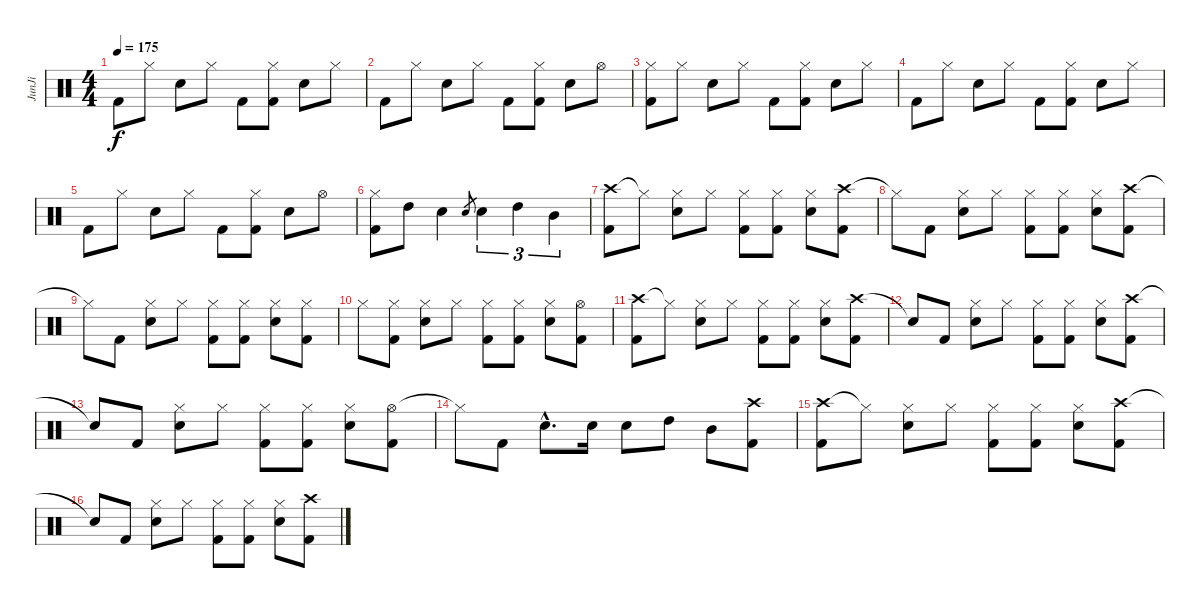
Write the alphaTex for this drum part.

\track ("JunJi" "JunJi") {instrument percussion}
\staff {score}
\articulation defaults
\ts (4 4)
\tempo 175
\clef neutral
\ks c "Kick (hit) 2".8{dy f} "Hi-Hat (closed)".8 "Snare (hit) 2".8 "Hi-Hat (closed)".8 "Kick (hit) 2".8
("Hi-Hat (closed)" "Kick (hit) 2").8 "Snare (hit) 2".8 "Hi-Hat (closed)".8 |
"Kick (hit) 2".8 "Hi-Hat (closed)".8 "Snare (hit) 2".8 "Hi-Hat (closed)".8 "Kick (hit) 2".8 ("Hi-Hat (closed)" "Kick (hit) 2").8 "Snare (hit) 2".8 "Hi-Hat (open)".8 |
("Hi-Hat (closed)" "Kick (hit) 2").8 "Hi-Hat (closed)".8 "Snare (hit) 2".8 "Hi-Hat (closed)".8 "Kick (hit) 2".8 ("Hi-Hat (closed)" "Kick (hit) 2").8 "Snare (hit) 2".8 "Hi-Hat (closed)".8 |
"Kick (hit) 2".8 "Hi-Hat (closed)".8 "Snare (hit) 2".8 "Hi-Hat (closed)".8 "Kick (hit) 2".8 ("Hi-Hat (closed)" "Kick (hit) 2").8 "Snare (hit) 2".8 "Hi-Hat (closed)".8 |
"Kick (hit) 2".8 "Hi-Hat (closed)".8 "Snare (hit) 2".8 "Hi-Hat (closed)".8 "Kick (hit) 2".8 ("Hi-Hat (closed)" "Kick (hit) 2").8 "Snare (hit) 2".8 "Hi-Hat (open)".8 |
("Hi-Hat (closed)" "Kick (hit) 2").8 "High Tom (hit)".8 "Snare (hit) 2".4 "Snare (hit) 2".8{gr} "Snare (hit) 2".4{tu (3 2)} "High Tom (hit)".4{tu (3 2)} "Mid Tom (hit)".4{tu (3 2)} |
("Crash high (hit)" "Kick (hit) 2").8 "Hi-Hat (closed)"{t}.8 ("Hi-Hat (closed)" "Snare (hit) 2").8 "Hi-Hat (closed)".8 ("Hi-Hat (closed)" "Kick (hit) 2").8 ("Hi-Hat (closed)" "Kick (hit) 2").8 ("Hi-Hat (closed)" "Snare (hit) 2").8 ("Crash high (hit)" "Kick (hit) 2").8 |
"Hi-Hat (closed)"{t}.8 "Kick (hit) 2".8 ("Hi-Hat (closed)" "Snare (hit) 2").8 "Hi-Hat (closed)".8 ("Hi-Hat (closed)" "Kick (hit) 2").8 ("Hi-Hat (closed)" "Kick (hit) 2").8 ("Hi-Hat (closed)" "Snare (hit) 2").8 ("Crash high (hit)" "Kick (hit) 2").8 |
"Hi-Hat (closed)"{t}.8 "Kick (hit) 2".8 ("Hi-Hat (closed)" "Snare (hit) 2").8 "Hi-Hat (closed)".8 ("Hi-Hat (closed)" "Kick (hit) 2").8 ("Hi-Hat (closed)" "Kick (hit) 2").8 ("Hi-Hat (closed)" "Snare (hit) 2").8 ("Hi-Hat (closed)" "Kick (hit) 2").8 |
"Hi-Hat (closed)".8 ("Hi-Hat (closed)" "Kick (hit) 2").8 ("Hi-Hat (closed)" "Snare (hit) 2").8 "Hi-Hat (closed)".8 ("Hi-Hat (closed)" "Kick (hit) 2").8 ("Hi-Hat (closed)" "Kick (hit) 2").8 ("Hi-Hat (closed)" "Snare (hit) 2").8 ("Hi-Hat (open)" "Kick (hit) 2").8 |
("Crash high (hit)" "Kick (hit) 2").8 "Hi-Hat (closed)"{t}.8 ("Hi-Hat (closed)" "Snare (hit) 2").8 "Hi-Hat (closed)".8 ("Hi-Hat (closed)" "Kick (hit) 2").8 ("Hi-Hat (closed)" "Kick (hit) 2").8 ("Hi-Hat (closed)" "Snare (hit) 2").8 ("Crash high (hit)" "Kick (hit) 2").8 |
"Snare (hit)"{t}.8 "Kick (hit) 2".8 ("Hi-Hat (closed)" "Snare (hit) 2").8 "Hi-Hat (closed)".8 ("Hi-Hat (closed)" "Kick (hit) 2").8 ("Hi-Hat (closed)" "Kick (hit) 2").8 ("Hi-Hat (closed)" "Snare (hit) 2").8 ("Crash high (hit)" "Kick (hit) 2").8 |
"Snare (hit)"{t}.8 "Kick (hit) 2".8 ("Hi-Hat (closed)" "Snare (hit) 2").8 "Hi-Hat (closed)".8 ("Hi-Hat (closed)" "Kick (hit) 2").8 ("Hi-Hat (closed)" "Kick (hit) 2").8 ("Hi-Hat (closed)" "Snare (hit) 2").8 ("Hi-Hat (open)" "Kick (hit) 2").8 |
"Hi-Hat (closed)"{t}.8 "Kick (hit) 2".8 "Snare (hit) 2"{hac}.8{d} "Snare (hit) 2".16 "Snare (hit) 2".8 "High Tom (hit)".8 "Mid Tom (hit)".8 ("Crash high (hit)" "Kick (hit) 2").8 |
("Crash high (hit)" "Kick (hit) 2").8 "Hi-Hat (closed)"{t}.8 ("Hi-Hat (closed)" "Snare (hit) 2").8 "Hi-Hat (closed)".8 ("Hi-Hat (closed)" "Kick (hit) 2").8 ("Hi-Hat (closed)" "Kick (hit) 2").8 ("Hi-Hat (closed)" "Snare (hit) 2").8 ("Crash high (hit)" "Kick (hit) 2").8 |
"Snare (hit)"{t}.8 "Kick (hit) 2".8 ("Hi-Hat (closed)" "Snare (hit) 2").8 "Hi-Hat (closed)".8 ("Hi-Hat (closed)" "Kick (hit) 2").8 ("Hi-Hat (closed)" "Kick (hit) 2").8 ("Hi-Hat (closed)" "Snare (hit) 2").8 ("Crash high (hit)" "Kick (hit) 2").8
